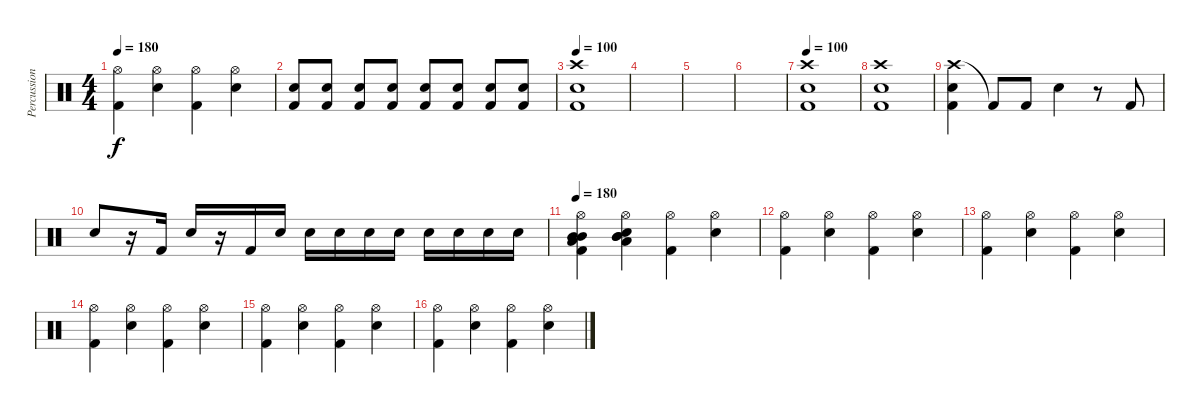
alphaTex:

\track ("Percussion" "Percussion") {instrument percussion}
\staff {score}
\articulation defaults
\ts (4 4)
\tempo 180
\clef neutral
\ks c
("Hi-Hat (open)" "Kick (hit) 2").4{dy f} ("Hi-Hat (open)" "Electric Snare (hit)").4 ("Hi-Hat (open)" "Kick (hit) 2").4 ("Hi-Hat (open)" "Electric Snare (hit)").4 |
("Electric Snare (hit)" "Kick (hit) 2").8 ("Electric Snare (hit)" "Kick (hit) 2").8 ("Electric Snare (hit)" "Kick (hit) 2").8 ("Electric Snare (hit)" "Kick (hit) 2").8 ("Electric Snare (hit)" "Kick (hit) 2").8 ("Electric Snare (hit)" "Kick (hit) 2").8 ("Electric Snare (hit)" "Kick (hit) 2").8 ("Electric Snare (hit)" "Kick (hit) 2").8 |
\tempo 100
("Electric Snare (hit)" "Crash high (hit)" "Kick (hit) 2").1 |
|
|
|
\tempo 100
("Electric Snare (hit)" "Crash high (hit)" "Kick (hit) 2").1 |
("Crash high (hit)" "Electric Snare (hit)" "Kick (hit) 2").1 |
("Crash high (hit)" "Electric Snare (hit)" "Kick (hit) 2").4 "Kick (hit) 2"{t}.8 "Kick (hit) 2".8 "Electric Snare (hit)".4 r.8 "Kick (hit) 2".8 |
"Electric Snare (hit)".8 r.16 "Kick (hit) 2".16 "Electric Snare (hit)".16 r.16 "Kick (hit) 2".16 "Electric Snare (hit)".16 "Electric Snare (hit)".16 "Electric Snare (hit)".16 "Electric Snare (hit)".16 "Electric Snare (hit)".16 "Electric Snare (hit)".16 "Electric Snare (hit)".16 "Electric Snare (hit)".16 "Electric Snare (hit)".16 |
\tempo 180
("Low Tom (hit)" "Mid Tom (hit)" "Mid Tom (hit)" "Hi-Hat (open)" "Kick (hit) 2").4 ("Low Tom (hit)" "Mid Tom (hit)" "Mid Tom (hit)" "Hi-Hat (open)" "Electric Snare (hit)").4 ("Hi-Hat (open)" "Kick (hit) 2").4 ("Hi-Hat (open)" "Electric Snare (hit)").4 |
("Hi-Hat (open)" "Kick (hit) 2").4 ("Hi-Hat (open)" "Electric Snare (hit)").4 ("Hi-Hat (open)" "Kick (hit) 2").4 ("Hi-Hat (open)" "Electric Snare (hit)").4 |
("Hi-Hat (open)" "Kick (hit) 2").4 ("Hi-Hat (open)" "Electric Snare (hit)").4 ("Hi-Hat (open)" "Kick (hit) 2").4 ("Hi-Hat (open)" "Electric Snare (hit)").4 |
("Hi-Hat (open)" "Kick (hit) 2").4 ("Hi-Hat (open)" "Electric Snare (hit)").4 ("Hi-Hat (open)" "Kick (hit) 2").4 ("Hi-Hat (open)" "Electric Snare (hit)").4 |
("Hi-Hat (open)" "Kick (hit) 2").4 ("Hi-Hat (open)" "Electric Snare (hit)").4 ("Hi-Hat (open)" "Kick (hit) 2").4 ("Hi-Hat (open)" "Electric Snare (hit)").4 |
("Hi-Hat (open)" "Kick (hit) 2").4 ("Hi-Hat (open)" "Electric Snare (hit)").4 ("Hi-Hat (open)" "Kick (hit) 2").4 ("Hi-Hat (open)" "Electric Snare (hit)").4
